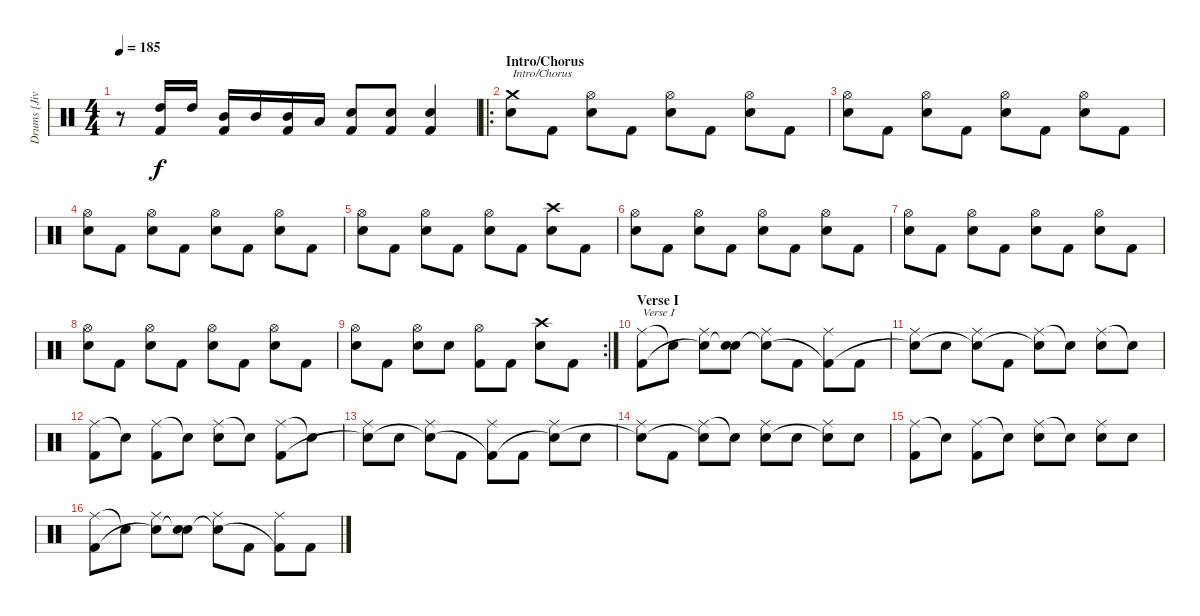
\track ("Drums [Jivarp]" "Drums [Jiv") {instrument percussion}
\staff {score}
\articulation defaults
\ts (4 4)
\tempo 185
\clef neutral
\ks c
r.8{dy f} ("High Tom (hit)" "Kick (hit) 2").16 "High Tom (hit)".16 ("Mid Tom (hit)" "Kick (hit) 2").16 "Mid Tom (hit)".16 ("Mid Tom (hit)" "Kick (hit) 2").16 "Low Tom (hit)".16 ("Electric Snare (hit)" "Kick (hit) 2").8 ("Electric Snare (hit)" "Kick (hit) 2").8 ("Electric Snare (hit)" "Kick (hit) 2").4 |
\ro
\section ("" "Intro/Chorus")
("Crash medium (hit)" "Electric Snare (hit)").8{txt "Intro/Chorus"} "Kick (hit) 2".8 ("Hi-Hat (open)" "Electric Snare (hit)").8 "Kick (hit) 2".8 ("Hi-Hat (open)" "Electric Snare (hit)").8 "Kick (hit) 2".8 ("Hi-Hat (open)" "Electric Snare (hit)").8 "Kick (hit) 2".8 |
("Hi-Hat (open)" "Electric Snare (hit)").8 "Kick (hit) 2".8 ("Hi-Hat (open)" "Electric Snare (hit)").8 "Kick (hit) 2".8 ("Hi-Hat (open)" "Electric Snare (hit)").8 "Kick (hit) 2".8 ("Hi-Hat (open)" "Electric Snare (hit)").8 "Kick (hit) 2".8 |
("Hi-Hat (open)" "Electric Snare (hit)").8 "Kick (hit) 2".8 ("Hi-Hat (open)" "Electric Snare (hit)").8 "Kick (hit) 2".8 ("Hi-Hat (open)" "Electric Snare (hit)").8 "Kick (hit) 2".8 ("Hi-Hat (open)" "Electric Snare (hit)").8 "Kick (hit) 2".8 |
("Hi-Hat (open)" "Electric Snare (hit)").8 "Kick (hit) 2".8 ("Hi-Hat (open)" "Electric Snare (hit)").8 "Kick (hit) 2".8 ("Hi-Hat (open)" "Electric Snare (hit)").8 "Kick (hit) 2".8 ("Crash high (hit)" "Electric Snare (hit)").8 "Kick (hit) 2".8 |
("Hi-Hat (open)" "Electric Snare (hit)").8 "Kick (hit) 2".8 ("Hi-Hat (open)" "Electric Snare (hit)").8 "Kick (hit) 2".8 ("Hi-Hat (open)" "Electric Snare (hit)").8 "Kick (hit) 2".8 ("Hi-Hat (open)" "Electric Snare (hit)").8 "Kick (hit) 2".8 |
("Hi-Hat (open)" "Electric Snare (hit)").8 "Kick (hit) 2".8 ("Hi-Hat (open)" "Electric Snare (hit)").8 "Kick (hit) 2".8 ("Hi-Hat (open)" "Electric Snare (hit)").8 "Kick (hit) 2".8 ("Hi-Hat (open)" "Electric Snare (hit)").8 "Kick (hit) 2".8 |
("Hi-Hat (open)" "Electric Snare (hit)").8 "Kick (hit) 2".8 ("Hi-Hat (open)" "Electric Snare (hit)").8 "Kick (hit) 2".8 ("Hi-Hat (open)" "Electric Snare (hit)").8 "Kick (hit) 2".8 ("Hi-Hat (open)" "Electric Snare (hit)").8 "Kick (hit) 2".8 |
\rc 2
("Hi-Hat (open)" "Electric Snare (hit)").8 "Kick (hit) 2".8 ("Hi-Hat (open)" "Electric Snare (hit)").8 "Electric Snare (hit)".8 ("Hi-Hat (open)" "Kick (hit) 2").8 "Kick (hit) 2".8 ("Crash high (hit)" "Electric Snare (hit)").8 "Kick (hit) 2".8 |
\section ("" "Verse I")
("Ride (middle)" "Kick (hit) 2").8{txt "Verse I"} "Snare (hit)"{t}.8 ("Ride (middle)" "Snare (hit)"{t}).8 ("Electric Snare (hit)" "Snare (hit)"{t}).8 ("Ride (middle)" "Snare (hit)"{t}).8 "Kick (hit) 2".8 ("Ride (middle)" "Kick (hit) 2"{t}).8 "Kick (hit) 2".8 |
("Ride (middle)" "Snare (hit)"{t}).8 "Electric Snare (hit)".8 ("Ride (middle)" "Snare (hit)"{t}).8 "Kick (hit) 2".8 ("Ride (middle)" "Snare (hit)"{t}).8 "Snare (hit)"{t}.8 ("Ride (middle)" "Electric Snare (hit)").8 "Snare (hit)"{t}.8 |
("Ride (middle)" "Kick (hit) 2").8 "Snare (hit)"{t}.8 ("Ride (middle)" "Kick (hit) 2").8 "Snare (hit)"{t}.8 ("Ride (middle)" "Electric Snare (hit)").8 "Snare (hit)"{t}.8 ("Ride (middle)" "Kick (hit) 2").8 "Snare (hit)"{t}.8 |
("Ride (middle)" "Snare (hit)"{t}).8 "Electric Snare (hit)".8 ("Ride (middle)" "Snare (hit)"{t}).8 "Kick (hit) 2".8 ("Ride (middle)" "Kick (hit) 2"{t}).8 "Kick (hit) 2".8 ("Ride (middle)" "Snare (hit)"{t}).8 "Electric Snare (hit)".8 |
("Ride (middle)" "Snare (hit)"{t}).8 "Kick (hit) 2".8 ("Ride (middle)" "Snare (hit)"{t}).8 "Snare (hit)"{t}.8 ("Ride (middle)" "Electric Snare (hit)").8 "Electric Snare (hit)".8 ("Ride (middle)" "Snare (hit)"{t}).8 "Electric Snare (hit)".8 |
("Ride (middle)" "Kick (hit) 2").8 "Snare (hit)"{t}.8 ("Ride (middle)" "Kick (hit) 2").8 "Snare (hit)"{t}.8 ("Ride (middle)" "Electric Snare (hit)").8 "Snare (hit)"{t}.8 ("Ride (middle)" "Electric Snare (hit)").8 "Electric Snare (hit)".8 |
("Ride (middle)" "Kick (hit) 2").8 "Snare (hit)"{t}.8 ("Ride (middle)" "Snare (hit)"{t}).8 ("Electric Snare (hit)" "Snare (hit)"{t}).8 ("Ride (middle)" "Snare (hit)"{t}).8 "Kick (hit) 2".8 ("Ride (middle)" "Kick (hit) 2"{t}).8 "Kick (hit) 2".8
